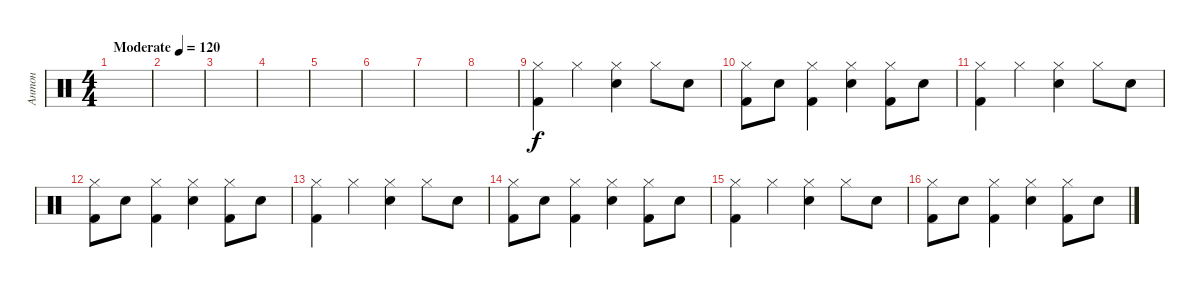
\track ("Антон" "Антон") {instrument percussion}
\staff {score}
\articulation defaults
\ts (4 4)
\tempo (120 "Moderate")
\clef neutral
\ks c
|
|
|
|
|
|
|
|
("Hi-Hat (closed)" "Kick (hit) 2").4 "Hi-Hat (closed)".4 ("Hi-Hat (closed)" "Electric Snare (hit)").4 "Hi-Hat (closed)".8 "Electric Snare (hit)".8 |
("Hi-Hat (closed)" "Kick (hit) 2").8 "Electric Snare (hit)".8 ("Hi-Hat (closed)" "Kick (hit) 2").4 ("Hi-Hat (closed)" "Electric Snare (hit)").4 ("Hi-Hat (closed)" "Kick (hit) 2").8 "Electric Snare (hit)".8 |
("Hi-Hat (closed)" "Kick (hit) 2").4 "Hi-Hat (closed)".4 ("Hi-Hat (closed)" "Electric Snare (hit)").4 "Hi-Hat (closed)".8 "Electric Snare (hit)".8 |
("Hi-Hat (closed)" "Kick (hit) 2").8 "Electric Snare (hit)".8 ("Hi-Hat (closed)" "Kick (hit) 2").4 ("Hi-Hat (closed)" "Electric Snare (hit)").4 ("Hi-Hat (closed)" "Kick (hit) 2").8 "Electric Snare (hit)".8 |
("Hi-Hat (closed)" "Kick (hit) 2").4 "Hi-Hat (closed)".4 ("Hi-Hat (closed)" "Electric Snare (hit)").4 "Hi-Hat (closed)".8 "Electric Snare (hit)".8 |
("Hi-Hat (closed)" "Kick (hit) 2").8 "Electric Snare (hit)".8 ("Hi-Hat (closed)" "Kick (hit) 2").4 ("Hi-Hat (closed)" "Electric Snare (hit)").4 ("Hi-Hat (closed)" "Kick (hit) 2").8 "Electric Snare (hit)".8 |
("Hi-Hat (closed)" "Kick (hit) 2").4 "Hi-Hat (closed)".4 ("Hi-Hat (closed)" "Electric Snare (hit)").4 "Hi-Hat (closed)".8 "Electric Snare (hit)".8 |
("Hi-Hat (closed)" "Kick (hit) 2").8 "Electric Snare (hit)".8 ("Hi-Hat (closed)" "Kick (hit) 2").4 ("Hi-Hat (closed)" "Electric Snare (hit)").4 ("Hi-Hat (closed)" "Kick (hit) 2").8 "Electric Snare (hit)".8
